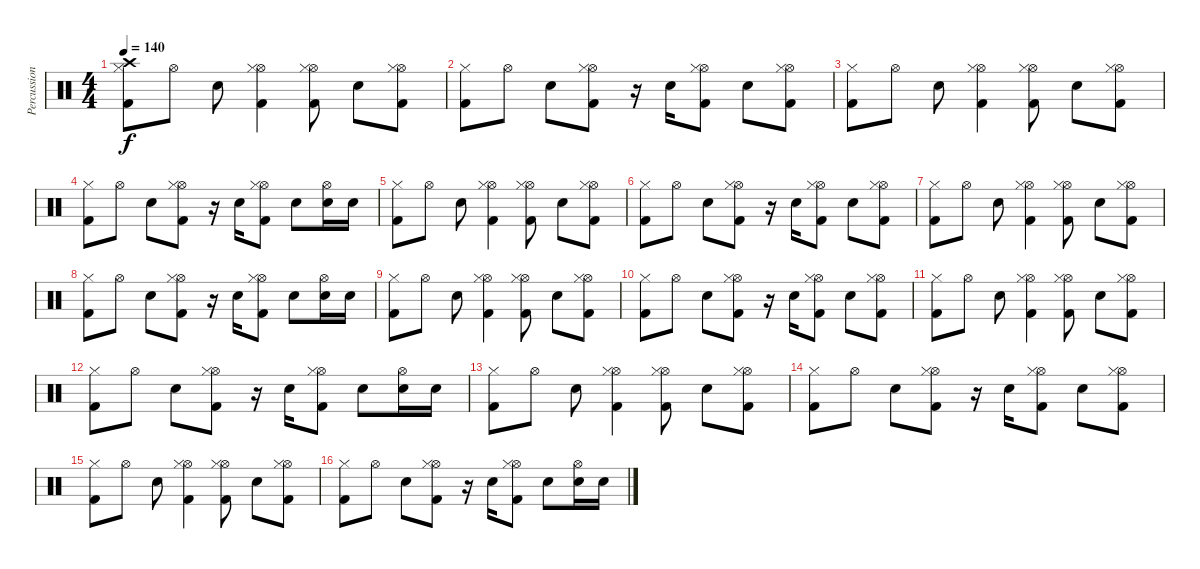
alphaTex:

\track ("Percussion" "Percussion") {instrument percussion}
\staff {score}
\articulation defaults
\ts (4 4)
\tempo 140
\clef neutral
\ks c
("Kick (hit) 2" "Crash high (hit)" "Hi-Hat (closed)").8{dy f} "Hi-Hat (open)".8 "Snare (hit) 2".8 ("Kick (hit) 2" "Hi-Hat (open)" "Hi-Hat (closed)").4 ("Kick (hit) 2" "Hi-Hat (open)" "Hi-Hat (closed)").8 "Snare (hit) 2".8 ("Kick (hit) 2" "Hi-Hat (open)" "Hi-Hat (closed)").8 |
("Kick (hit) 2" "Hi-Hat (closed)").8 "Hi-Hat (open)".8 "Snare (hit) 2".8 ("Kick (hit) 2" "Hi-Hat (open)" "Hi-Hat (closed)").8 r.16 "Snare (hit) 2".16 ("Kick (hit) 2" "Hi-Hat (open)" "Hi-Hat (closed)").8 "Snare (hit) 2".8 ("Kick (hit) 2" "Hi-Hat (open)" "Hi-Hat (closed)").8 |
("Kick (hit) 2" "Hi-Hat (closed)").8 "Hi-Hat (open)".8 "Snare (hit) 2".8 ("Kick (hit) 2" "Hi-Hat (open)" "Hi-Hat (closed)").4 ("Kick (hit) 2" "Hi-Hat (open)" "Hi-Hat (closed)").8 "Snare (hit) 2".8 ("Kick (hit) 2" "Hi-Hat (open)" "Hi-Hat (closed)").8 |
("Kick (hit) 2" "Hi-Hat (closed)").8 "Hi-Hat (open)".8 "Snare (hit) 2".8 ("Kick (hit) 2" "Hi-Hat (open)" "Hi-Hat (closed)").8 r.16 "Snare (hit) 2".16 ("Kick (hit) 2" "Hi-Hat (open)" "Hi-Hat (closed)").8 "Snare (hit) 2".8 ("Snare (hit) 2" "Hi-Hat (open)").16 "Snare (hit) 2".16 |
("Kick (hit) 2" "Hi-Hat (closed)").8 "Hi-Hat (open)".8 "Snare (hit) 2".8 ("Kick (hit) 2" "Hi-Hat (open)" "Hi-Hat (closed)").4 ("Kick (hit) 2" "Hi-Hat (open)" "Hi-Hat (closed)").8 "Snare (hit) 2".8 ("Kick (hit) 2" "Hi-Hat (open)" "Hi-Hat (closed)").8 |
("Kick (hit) 2" "Hi-Hat (closed)").8 "Hi-Hat (open)".8 "Snare (hit) 2".8 ("Kick (hit) 2" "Hi-Hat (open)" "Hi-Hat (closed)").8 r.16 "Snare (hit) 2".16 ("Kick (hit) 2" "Hi-Hat (open)" "Hi-Hat (closed)").8 "Snare (hit) 2".8 ("Kick (hit) 2" "Hi-Hat (open)" "Hi-Hat (closed)").8 |
("Kick (hit) 2" "Hi-Hat (closed)").8 "Hi-Hat (open)".8 "Snare (hit) 2".8 ("Kick (hit) 2" "Hi-Hat (open)" "Hi-Hat (closed)").4 ("Kick (hit) 2" "Hi-Hat (open)" "Hi-Hat (closed)").8 "Snare (hit) 2".8 ("Kick (hit) 2" "Hi-Hat (open)" "Hi-Hat (closed)").8 |
("Kick (hit) 2" "Hi-Hat (closed)").8 "Hi-Hat (open)".8 "Snare (hit) 2".8 ("Kick (hit) 2" "Hi-Hat (open)" "Hi-Hat (closed)").8 r.16 "Snare (hit) 2".16 ("Kick (hit) 2" "Hi-Hat (open)" "Hi-Hat (closed)").8 "Snare (hit) 2".8 ("Snare (hit) 2" "Hi-Hat (open)").16 "Snare (hit) 2".16 |
("Kick (hit) 2" "Hi-Hat (closed)").8 "Hi-Hat (open)".8 "Snare (hit) 2".8 ("Kick (hit) 2" "Hi-Hat (open)" "Hi-Hat (closed)").4 ("Kick (hit) 2" "Hi-Hat (open)" "Hi-Hat (closed)").8 "Snare (hit) 2".8 ("Kick (hit) 2" "Hi-Hat (open)" "Hi-Hat (closed)").8 |
("Kick (hit) 2" "Hi-Hat (closed)").8 "Hi-Hat (open)".8 "Snare (hit) 2".8 ("Kick (hit) 2" "Hi-Hat (open)" "Hi-Hat (closed)").8 r.16 "Snare (hit) 2".16 ("Kick (hit) 2" "Hi-Hat (open)" "Hi-Hat (closed)").8 "Snare (hit) 2".8 ("Kick (hit) 2" "Hi-Hat (open)" "Hi-Hat (closed)").8 |
("Kick (hit) 2" "Hi-Hat (closed)").8 "Hi-Hat (open)".8 "Snare (hit) 2".8 ("Kick (hit) 2" "Hi-Hat (open)" "Hi-Hat (closed)").4 ("Kick (hit) 2" "Hi-Hat (open)" "Hi-Hat (closed)").8 "Snare (hit) 2".8 ("Kick (hit) 2" "Hi-Hat (open)" "Hi-Hat (closed)").8 |
("Kick (hit) 2" "Hi-Hat (closed)").8 "Hi-Hat (open)".8 "Snare (hit) 2".8 ("Kick (hit) 2" "Hi-Hat (open)" "Hi-Hat (closed)").8 r.16 "Snare (hit) 2".16 ("Kick (hit) 2" "Hi-Hat (open)" "Hi-Hat (closed)").8 "Snare (hit) 2".8 ("Snare (hit) 2" "Hi-Hat (open)").16 "Snare (hit) 2".16 |
("Kick (hit) 2" "Hi-Hat (closed)").8 "Hi-Hat (open)".8 "Snare (hit) 2".8 ("Kick (hit) 2" "Hi-Hat (open)" "Hi-Hat (closed)").4 ("Kick (hit) 2" "Hi-Hat (open)" "Hi-Hat (closed)").8 "Snare (hit) 2".8 ("Kick (hit) 2" "Hi-Hat (open)" "Hi-Hat (closed)").8 |
("Kick (hit) 2" "Hi-Hat (closed)").8 "Hi-Hat (open)".8 "Snare (hit) 2".8 ("Kick (hit) 2" "Hi-Hat (open)" "Hi-Hat (closed)").8 r.16 "Snare (hit) 2".16 ("Kick (hit) 2" "Hi-Hat (open)" "Hi-Hat (closed)").8 "Snare (hit) 2".8 ("Kick (hit) 2" "Hi-Hat (open)" "Hi-Hat (closed)").8 |
("Kick (hit) 2" "Hi-Hat (closed)").8 "Hi-Hat (open)".8 "Snare (hit) 2".8 ("Kick (hit) 2" "Hi-Hat (open)" "Hi-Hat (closed)").4 ("Kick (hit) 2" "Hi-Hat (open)" "Hi-Hat (closed)").8 "Snare (hit) 2".8 ("Kick (hit) 2" "Hi-Hat (open)" "Hi-Hat (closed)").8 |
("Kick (hit) 2" "Hi-Hat (closed)").8 "Hi-Hat (open)".8 "Snare (hit) 2".8 ("Kick (hit) 2" "Hi-Hat (open)" "Hi-Hat (closed)").8 r.16 "Snare (hit) 2".16 ("Kick (hit) 2" "Hi-Hat (open)" "Hi-Hat (closed)").8 "Snare (hit) 2".8 ("Snare (hit) 2" "Hi-Hat (open)").16 "Snare (hit) 2".16
